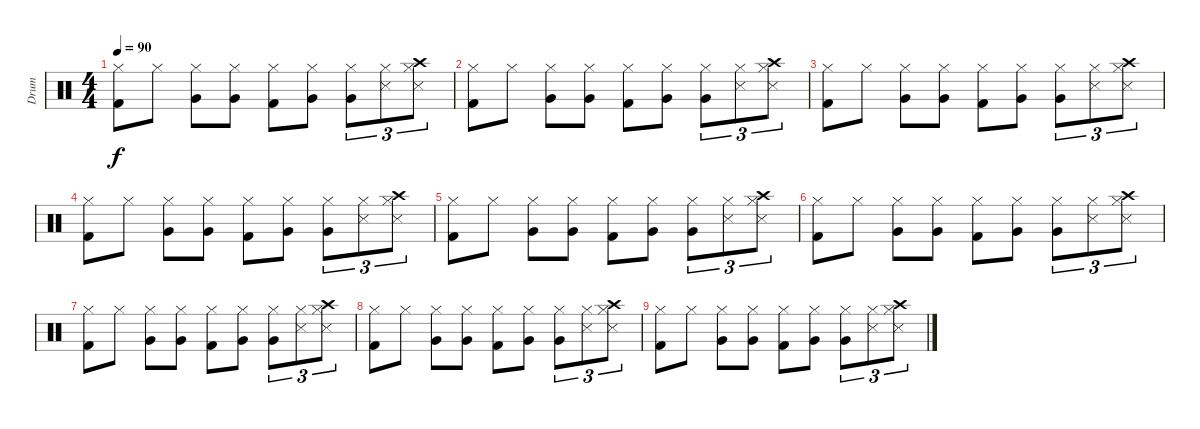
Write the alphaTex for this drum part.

\track ("Drum" "Drum") {instrument percussion}
\staff {score}
\articulation defaults
\ts (4 4)
\tempo 90
\clef neutral
\ks c
("Kick (hit) 2" "Hi-Hat (closed)").8{dy f} "Hi-Hat (closed)".8 ("Very Low Tom (hit)" "Hi-Hat (closed)").8 ("Very Low Tom (hit)" "Hi-Hat (closed)").8 ("Kick (hit) 2" "Hi-Hat (closed)").8 ("Very Low Tom (hit)" "Hi-Hat (closed)").8 ("Very Low Tom (hit)" "Hi-Hat (closed)").8{tu (3 2)} ("Snare (side stick) 3" "Hi-Hat (closed)").8{tu (3 2)} ("Crash high (hit)" "Snare (side stick) 3" "Hi-Hat (closed)").8{tu (3 2)} |
("Kick (hit) 2" "Hi-Hat (closed)").8 "Hi-Hat (closed)".8 ("Very Low Tom (hit)" "Hi-Hat (closed)").8 ("Very Low Tom (hit)" "Hi-Hat (closed)").8 ("Kick (hit) 2" "Hi-Hat (closed)").8 ("Very Low Tom (hit)" "Hi-Hat (closed)").8 ("Very Low Tom (hit)" "Hi-Hat (closed)").8{tu (3 2)} ("Snare (side stick) 3" "Hi-Hat (closed)").8{tu (3 2)} ("Crash high (hit)" "Snare (side stick) 3" "Hi-Hat (closed)").8{tu (3 2)} |
("Kick (hit) 2" "Hi-Hat (closed)").8 "Hi-Hat (closed)".8 ("Very Low Tom (hit)" "Hi-Hat (closed)").8 ("Very Low Tom (hit)" "Hi-Hat (closed)").8 ("Kick (hit) 2" "Hi-Hat (closed)").8 ("Very Low Tom (hit)" "Hi-Hat (closed)").8 ("Very Low Tom (hit)" "Hi-Hat (closed)").8{tu (3 2)} ("Snare (side stick) 3" "Hi-Hat (closed)").8{tu (3 2)} ("Crash high (hit)" "Snare (side stick) 3" "Hi-Hat (closed)").8{tu (3 2)} |
("Kick (hit) 2" "Hi-Hat (closed)").8 "Hi-Hat (closed)".8 ("Very Low Tom (hit)" "Hi-Hat (closed)").8 ("Very Low Tom (hit)" "Hi-Hat (closed)").8 ("Kick (hit) 2" "Hi-Hat (closed)").8 ("Very Low Tom (hit)" "Hi-Hat (closed)").8 ("Very Low Tom (hit)" "Hi-Hat (closed)").8{tu (3 2)} ("Snare (side stick) 3" "Hi-Hat (closed)").8{tu (3 2)} ("Crash high (hit)" "Snare (side stick) 3" "Hi-Hat (closed)").8{tu (3 2)} |
("Kick (hit) 2" "Hi-Hat (closed)").8 "Hi-Hat (closed)".8 ("Very Low Tom (hit)" "Hi-Hat (closed)").8 ("Very Low Tom (hit)" "Hi-Hat (closed)").8 ("Kick (hit) 2" "Hi-Hat (closed)").8 ("Very Low Tom (hit)" "Hi-Hat (closed)").8 ("Very Low Tom (hit)" "Hi-Hat (closed)").8{tu (3 2)} ("Snare (side stick) 3" "Hi-Hat (closed)").8{tu (3 2)} ("Crash high (hit)" "Snare (side stick) 3" "Hi-Hat (closed)").8{tu (3 2)} |
("Kick (hit) 2" "Hi-Hat (closed)").8 "Hi-Hat (closed)".8 ("Very Low Tom (hit)" "Hi-Hat (closed)").8 ("Very Low Tom (hit)" "Hi-Hat (closed)").8 ("Kick (hit) 2" "Hi-Hat (closed)").8 ("Very Low Tom (hit)" "Hi-Hat (closed)").8 ("Very Low Tom (hit)" "Hi-Hat (closed)").8{tu (3 2)} ("Snare (side stick) 3" "Hi-Hat (closed)").8{tu (3 2)} ("Crash high (hit)" "Snare (side stick) 3" "Hi-Hat (closed)").8{tu (3 2)} |
("Kick (hit) 2" "Hi-Hat (closed)").8 "Hi-Hat (closed)".8 ("Very Low Tom (hit)" "Hi-Hat (closed)").8 ("Very Low Tom (hit)" "Hi-Hat (closed)").8 ("Kick (hit) 2" "Hi-Hat (closed)").8 ("Very Low Tom (hit)" "Hi-Hat (closed)").8 ("Very Low Tom (hit)" "Hi-Hat (closed)").8{tu (3 2)} ("Snare (side stick) 3" "Hi-Hat (closed)").8{tu (3 2)} ("Crash high (hit)" "Snare (side stick) 3" "Hi-Hat (closed)").8{tu (3 2)} |
("Kick (hit) 2" "Hi-Hat (closed)").8 "Hi-Hat (closed)".8 ("Very Low Tom (hit)" "Hi-Hat (closed)").8 ("Very Low Tom (hit)" "Hi-Hat (closed)").8 ("Kick (hit) 2" "Hi-Hat (closed)").8 ("Very Low Tom (hit)" "Hi-Hat (closed)").8 ("Very Low Tom (hit)" "Hi-Hat (closed)").8{tu (3 2)} ("Snare (side stick) 3" "Hi-Hat (closed)").8{tu (3 2)} ("Crash high (hit)" "Snare (side stick) 3" "Hi-Hat (closed)").8{tu (3 2)} |
("Kick (hit) 2" "Hi-Hat (closed)").8 "Hi-Hat (closed)".8 ("Very Low Tom (hit)" "Hi-Hat (closed)").8 ("Very Low Tom (hit)" "Hi-Hat (closed)").8 ("Kick (hit) 2" "Hi-Hat (closed)").8 ("Very Low Tom (hit)" "Hi-Hat (closed)").8 ("Very Low Tom (hit)" "Hi-Hat (closed)").8{tu (3 2)} ("Snare (side stick) 3" "Hi-Hat (closed)").8{tu (3 2)} ("Crash high (hit)" "Snare (side stick) 3" "Hi-Hat (closed)").8{tu (3 2)}
